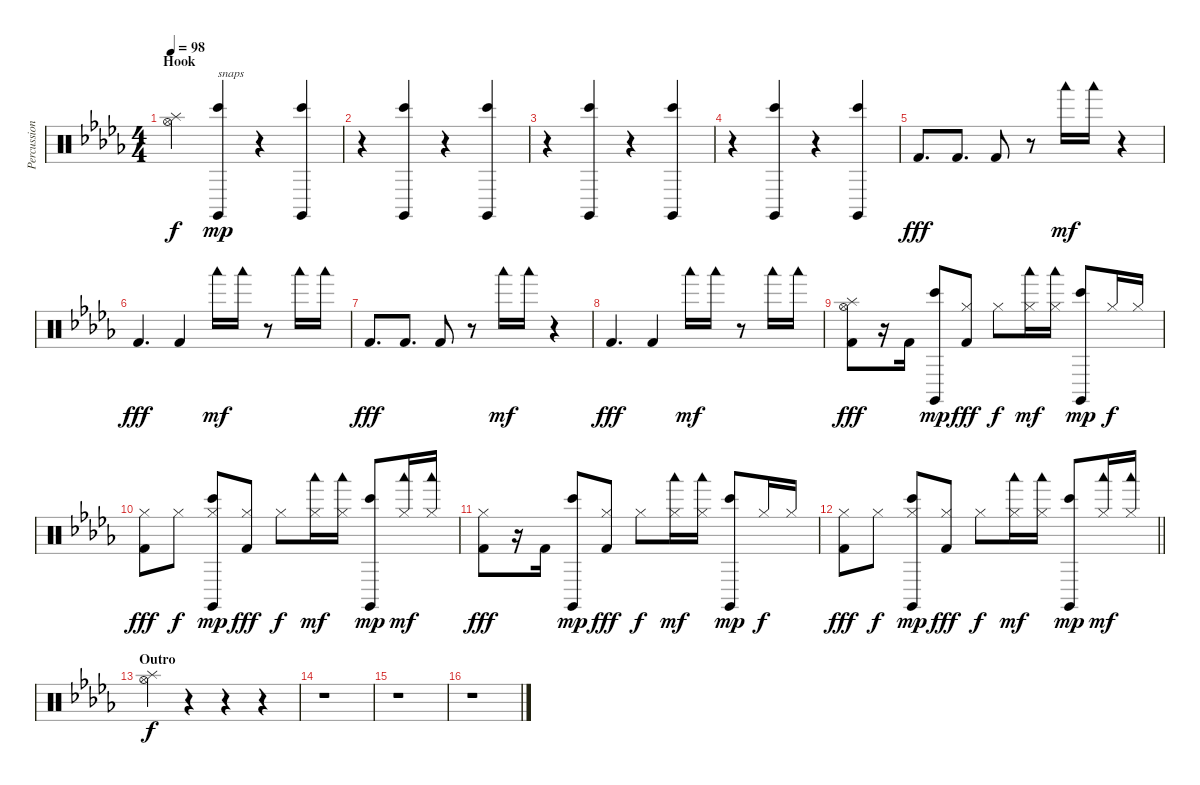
\track ("Percussion" "Percussion") {instrument percussion}
\staff {score}
\articulation defaults
\ts (4 4)
\section ("" "Hook")
\tempo 98
\clef neutral
\ks db
("Splash (hit)" "Hi-Hat (open)").4{dy f} ("Claves (hit)" "Bongo High (hit)").4{txt "snaps" dy mp} r.4 ("Claves (hit)" "Bongo High (hit)").4 |
r.4 ("Claves (hit)" "Bongo High (hit)").4 r.4 ("Claves (hit)" "Bongo High (hit)").4 |
r.4 ("Claves (hit)" "Bongo High (hit)").4 r.4 ("Claves (hit)" "Bongo High (hit)").4 |
r.4 ("Claves (hit)" "Bongo High (hit)").4 r.4 ("Claves (hit)" "Bongo High (hit)").4 |
"Kick (hit) 2".8{d dy fff} "Kick (hit) 2".8{d} "Kick (hit) 2".8 r.8 "Woodblock low (hit)".16{dy mf balance 3} "Woodblock low (hit)".16{balance 13} r.4 |
"Kick (hit) 2".4{d dy fff balance 8} "Kick (hit) 2".4 "Woodblock low (hit)".16{dy mf balance 3} "Woodblock low (hit)".16{balance 13} r.8 "Woodblock low (hit)".16{balance 3} "Woodblock low (hit)".16{balance 13} |
"Kick (hit) 2".8{d dy fff balance 8} "Kick (hit) 2".8{d} "Kick (hit) 2".8 r.8 "Woodblock low (hit)".16{dy mf balance 3} "Woodblock low (hit)".16{balance 13} r.4 |
"Kick (hit) 2".4{d dy fff balance 8} "Kick (hit) 2".4 "Woodblock low (hit)".16{dy mf balance 3} "Woodblock low (hit)".16{balance 13} r.8 "Woodblock low (hit)".16{balance 3} "Woodblock low (hit)".16{balance 13} |
("Splash (hit)" "Hi-Hat (open)" "Kick (hit) 2").8{dy fff balance 8} r.16 "Kick (hit) 2".16 ("Claves (hit)" "Bongo High (hit)").8{dy mp} ("Hi-Hat (closed)" "Kick (hit) 2").8{dy fff} "Hi-Hat (closed)".8{dy f} ("Hi-Hat (closed)" "Woodblock low (hit)").16{dy mf} ("Hi-Hat (closed)" "Woodblock low (hit)").16 ("Claves (hit)" "Bongo High (hit)").8{dy mp} "Hi-Hat (closed)".16{dy f} "Hi-Hat (closed)".16 |
("Hi-Hat (closed)" "Kick (hit) 2").8{dy fff} "Hi-Hat (closed)".8{dy f} ("Hi-Hat (closed)" "Claves (hit)" "Bongo High (hit)").8{dy mp} ("Hi-Hat (closed)" "Kick (hit) 2").8{dy fff} "Hi-Hat (closed)".8{dy f} ("Hi-Hat (closed)" "Woodblock low (hit)").16{dy mf} ("Hi-Hat (closed)" "Woodblock low (hit)").16 ("Claves (hit)" "Bongo High (hit)").8{dy mp} ("Hi-Hat (closed)" "Woodblock low (hit)").16{dy mf} ("Hi-Hat (closed)" "Woodblock low (hit)").16 |
("Hi-Hat (closed)" "Kick (hit) 2").8{dy fff} r.16 "Kick (hit) 2".16 ("Claves (hit)" "Bongo High (hit)").8{dy mp} ("Hi-Hat (closed)" "Kick (hit) 2").8{dy fff} "Hi-Hat (closed)".8{dy f} ("Hi-Hat (closed)" "Woodblock low (hit)").16{dy mf} ("Hi-Hat (closed)" "Woodblock low (hit)").16 ("Claves (hit)" "Bongo High (hit)").8{dy mp} "Hi-Hat (closed)".16{dy f} "Hi-Hat (closed)".16 |
\barLineRight lightlight
("Hi-Hat (closed)" "Kick (hit) 2").8{dy fff} "Hi-Hat (closed)".8{dy f} ("Hi-Hat (closed)" "Claves (hit)" "Bongo High (hit)").8{dy mp} ("Hi-Hat (closed)" "Kick (hit) 2").8{dy fff} "Hi-Hat (closed)".8{dy f} ("Hi-Hat (closed)" "Woodblock low (hit)").16{dy mf} ("Hi-Hat (closed)" "Woodblock low (hit)").16 ("Claves (hit)" "Bongo High (hit)").8{dy mp} ("Hi-Hat (closed)" "Woodblock low (hit)").16{dy mf} ("Hi-Hat (closed)" "Woodblock low (hit)").16 |
\section ("" "Outro")
("Splash (hit)" "Hi-Hat (open)").4{dy f} r.4 r.4 r.4 |
r.1 |
r.1 |
r.1
